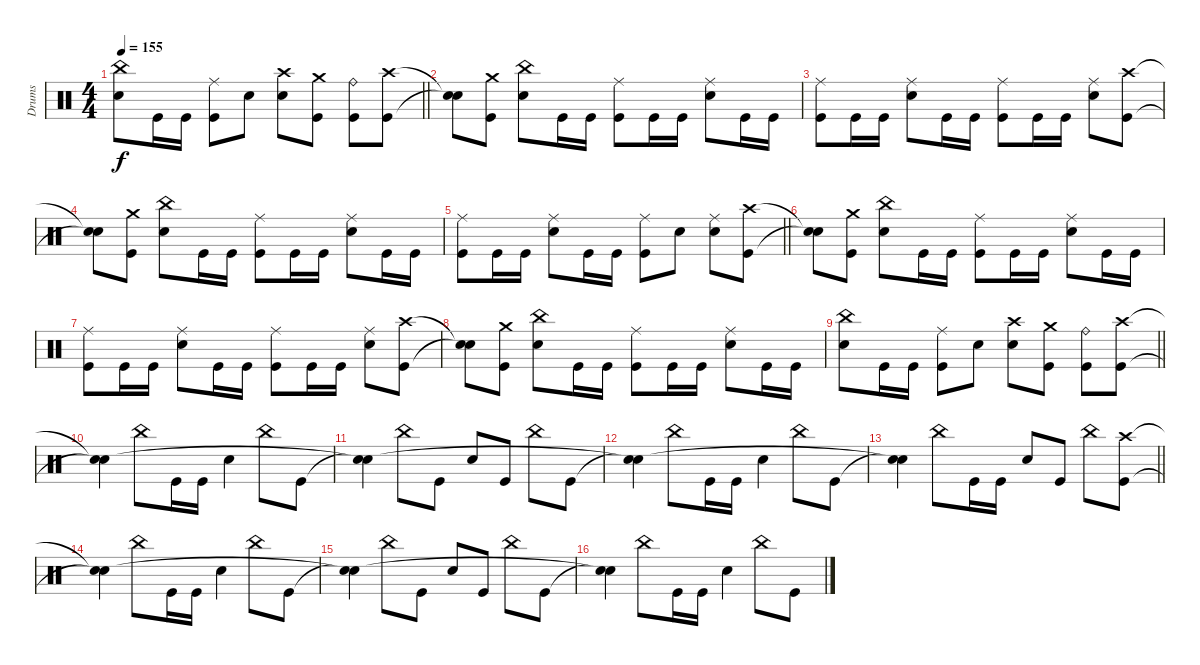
\track ("Drums" "Drums") {instrument percussion}
\staff
\articulation defaults
\ts (4 4)
\tempo 155
\clef neutral
\barLineRight lightlight
\ks c
("China (hit)" "Electric Snare (hit)").8{dy f} "Kick (hit)".16 "Kick (hit)".16 ("Ride (middle)" "Kick (hit)").8 "Electric Snare (hit)".8 ("Crash high (hit)" "Electric Snare (hit)").8 ("Crash medium (hit)" "Kick (hit)").8 ("Ride (bell)" "Kick (hit)").8 ("Crash high (hit)" "Kick (hit)").8 |
("Snare (hit)"{t} "Snare (hit)"{t}).8 ("Crash medium (hit)" "Kick (hit)").8 ("China (hit)" "Electric Snare (hit)").8 "Kick (hit)".16 "Kick (hit)".16 ("Ride (middle)" "Kick (hit)").8 "Kick (hit)".16 "Kick (hit)".16 ("Ride (middle)" "Electric Snare (hit)").8 "Kick (hit)".16 "Kick (hit)".16 |
("Ride (middle)" "Kick (hit)").8 "Kick (hit)".16 "Kick (hit)".16 ("Ride (middle)" "Electric Snare (hit)").8 "Kick (hit)".16 "Kick (hit)".16 ("Ride (middle)" "Kick (hit)").8 "Kick (hit)".16 "Kick (hit)".16 ("Ride (middle)" "Electric Snare (hit)").8 ("Crash high (hit)" "Kick (hit)").8 |
("Snare (hit)"{t} "Snare (hit)"{t}).8 ("Crash medium (hit)" "Kick (hit)").8 ("China (hit)" "Electric Snare (hit)").8 "Kick (hit)".16 "Kick (hit)".16 ("Ride (middle)" "Kick (hit)").8 "Kick (hit)".16 "Kick (hit)".16 ("Ride (middle)" "Electric Snare (hit)").8 "Kick (hit)".16 "Kick (hit)".16 |
\barLineRight lightlight
("Ride (middle)" "Kick (hit)").8 "Kick (hit)".16 "Kick (hit)".16 ("Ride (middle)" "Electric Snare (hit)").8 "Kick (hit)".16 "Kick (hit)".16 ("Ride (middle)" "Kick (hit)").8 "Electric Snare (hit)".8 ("Ride (middle)" "Electric Snare (hit)").8 ("Crash high (hit)" "Kick (hit)").8 |
("Snare (hit)"{t} "Snare (hit)"{t}).8 ("Crash medium (hit)" "Kick (hit)").8 ("China (hit)" "Electric Snare (hit)").8 "Kick (hit)".16 "Kick (hit)".16 ("Ride (middle)" "Kick (hit)").8 "Kick (hit)".16 "Kick (hit)".16 ("Ride (middle)" "Electric Snare (hit)").8 "Kick (hit)".16 "Kick (hit)".16 |
("Ride (middle)" "Kick (hit)").8 "Kick (hit)".16 "Kick (hit)".16 ("Ride (middle)" "Electric Snare (hit)").8 "Kick (hit)".16 "Kick (hit)".16 ("Ride (middle)" "Kick (hit)").8 "Kick (hit)".16 "Kick (hit)".16 ("Ride (middle)" "Electric Snare (hit)").8 ("Crash high (hit)" "Kick (hit)").8 |
("Snare (hit)"{t} "Snare (hit)"{t}).8 ("Crash medium (hit)" "Kick (hit)").8 ("China (hit)" "Electric Snare (hit)").8 "Kick (hit)".16 "Kick (hit)".16 ("Ride (middle)" "Kick (hit)").8 "Kick (hit)".16 "Kick (hit)".16 ("Ride (middle)" "Electric Snare (hit)").8 "Kick (hit)".16 "Kick (hit)".16 |
\barLineRight lightlight
("China (hit)" "Electric Snare (hit)").8 "Kick (hit)".16 "Kick (hit)".16 ("Ride (middle)" "Kick (hit)").8 "Electric Snare (hit)".8 ("Crash high (hit)" "Electric Snare (hit)").8 ("Crash medium (hit)" "Kick (hit)").8 ("Ride (bell)" "Kick (hit)").8 ("Crash high (hit)" "Kick (hit)").8 |
\section ("" "")
("Snare (hit)"{t} "Snare (hit)"{t}).4 "China (hit)".8 "Kick (hit)".16 "Kick (hit)".16 "Electric Snare (hit)".4 "China (hit)".8 "Kick (hit)".8 |
("Snare (hit)"{t} "Snare (hit)"{t}).4 "China (hit)".8 "Kick (hit)".8 "Electric Snare (hit)".8 "Kick (hit)".8 "China (hit)".8 "Kick (hit)".8 |
("Snare (hit)"{t} "Snare (hit)"{t}).4 "China (hit)".8 "Kick (hit)".16 "Kick (hit)".16 "Electric Snare (hit)".4 "China (hit)".8 "Kick (hit)".8 |
\barLineRight lightlight
("Snare (hit)"{t} "Snare (hit)"{t}).4 "China (hit)".8 "Kick (hit)".16 "Kick (hit)".16 "Electric Snare (hit)".8 "Kick (hit)".8 "China (hit)".8 ("Crash high (hit)" "Kick (hit)").8 |
("Snare (hit)"{t} "Snare (hit)"{t}).4 "China (hit)".8 "Kick (hit)".16 "Kick (hit)".16 "Electric Snare (hit)".4 "China (hit)".8 "Kick (hit)".8 |
("Snare (hit)"{t} "Snare (hit)"{t}).4 "China (hit)".8 "Kick (hit)".8 "Electric Snare (hit)".8 "Kick (hit)".8 "China (hit)".8 "Kick (hit)".8 |
("Snare (hit)"{t} "Snare (hit)"{t}).4 "China (hit)".8 "Kick (hit)".16 "Kick (hit)".16 "Electric Snare (hit)".4 "China (hit)".8 "Kick (hit)".8
